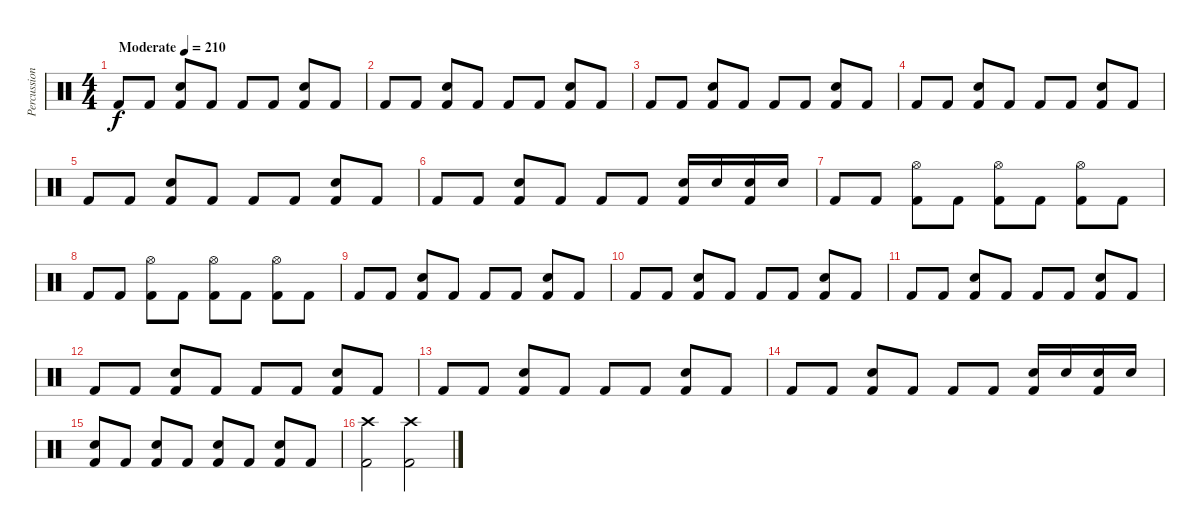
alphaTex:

\track ("Percussion" "Percussion") {instrument percussion}
\staff {score}
\articulation defaults
\ts (4 4)
\tempo (210 "Moderate")
\clef neutral
\ks c "Kick (hit) 2".8{dy f} "Kick (hit) 2".8
("Electric Snare (hit)" "Kick (hit) 2").8 "Kick (hit) 2".8 "Kick (hit) 2".8 "Kick (hit) 2".8 ("Electric Snare (hit)" "Kick (hit) 2").8 "Kick (hit) 2".8 |
"Kick (hit) 2".8 "Kick (hit) 2".8 ("Electric Snare (hit)" "Kick (hit) 2").8 "Kick (hit) 2".8 "Kick (hit) 2".8 "Kick (hit) 2".8 ("Electric Snare (hit)" "Kick (hit) 2").8 "Kick (hit) 2".8 |
"Kick (hit) 2".8 "Kick (hit) 2".8 ("Electric Snare (hit)" "Kick (hit) 2").8 "Kick (hit) 2".8 "Kick (hit) 2".8 "Kick (hit) 2".8 ("Electric Snare (hit)" "Kick (hit) 2").8 "Kick (hit) 2".8 |
"Kick (hit) 2".8 "Kick (hit) 2".8 ("Electric Snare (hit)" "Kick (hit) 2").8 "Kick (hit) 2".8 "Kick (hit) 2".8 "Kick (hit) 2".8 ("Electric Snare (hit)" "Kick (hit) 2").8 "Kick (hit) 2".8 |
"Kick (hit) 2".8 "Kick (hit) 2".8 ("Electric Snare (hit)" "Kick (hit) 2").8 "Kick (hit) 2".8 "Kick (hit) 2".8 "Kick (hit) 2".8 ("Electric Snare (hit)" "Kick (hit) 2").8 "Kick (hit) 2".8 |
"Kick (hit) 2".8 "Kick (hit) 2".8 ("Electric Snare (hit)" "Kick (hit) 2").8 "Kick (hit) 2".8 "Kick (hit) 2".8 "Kick (hit) 2".8 ("Electric Snare (hit)" "Kick (hit) 2").16 "Electric Snare (hit)".16 ("Electric Snare (hit)" "Kick (hit) 2").16 "Electric Snare (hit)".16 |
"Kick (hit) 2".8 "Kick (hit) 2".8 ("Hi-Hat (open)" "Kick (hit) 2").8 "Kick (hit) 2".8 ("Hi-Hat (open)" "Kick (hit) 2").8 "Kick (hit) 2".8 ("Hi-Hat (open)" "Kick (hit) 2").8 "Kick (hit) 2".8 |
"Kick (hit) 2".8 "Kick (hit) 2".8 ("Hi-Hat (open)" "Kick (hit) 2").8 "Kick (hit) 2".8 ("Hi-Hat (open)" "Kick (hit) 2").8 "Kick (hit) 2".8 ("Hi-Hat (open)" "Kick (hit) 2").8 "Kick (hit) 2".8 |
"Kick (hit) 2".8 "Kick (hit) 2".8 ("Electric Snare (hit)" "Kick (hit) 2").8 "Kick (hit) 2".8 "Kick (hit) 2".8 "Kick (hit) 2".8 ("Electric Snare (hit)" "Kick (hit) 2").8 "Kick (hit) 2".8 |
"Kick (hit) 2".8 "Kick (hit) 2".8 ("Electric Snare (hit)" "Kick (hit) 2").8 "Kick (hit) 2".8 "Kick (hit) 2".8 "Kick (hit) 2".8 ("Electric Snare (hit)" "Kick (hit) 2").8 "Kick (hit) 2".8 |
"Kick (hit) 2".8 "Kick (hit) 2".8 ("Electric Snare (hit)" "Kick (hit) 2").8 "Kick (hit) 2".8 "Kick (hit) 2".8 "Kick (hit) 2".8 ("Electric Snare (hit)" "Kick (hit) 2").8 "Kick (hit) 2".8 |
"Kick (hit) 2".8 "Kick (hit) 2".8 ("Electric Snare (hit)" "Kick (hit) 2").8 "Kick (hit) 2".8 "Kick (hit) 2".8 "Kick (hit) 2".8 ("Electric Snare (hit)" "Kick (hit) 2").8 "Kick (hit) 2".8 |
"Kick (hit) 2".8 "Kick (hit) 2".8 ("Electric Snare (hit)" "Kick (hit) 2").8 "Kick (hit) 2".8 "Kick (hit) 2".8 "Kick (hit) 2".8 ("Electric Snare (hit)" "Kick (hit) 2").8 "Kick (hit) 2".8 |
"Kick (hit) 2".8 "Kick (hit) 2".8 ("Electric Snare (hit)" "Kick (hit) 2").8 "Kick (hit) 2".8 "Kick (hit) 2".8 "Kick (hit) 2".8 ("Electric Snare (hit)" "Kick (hit) 2").16 "Electric Snare (hit)".16 ("Electric Snare (hit)" "Kick (hit) 2").16 "Electric Snare (hit)".16 |
("Electric Snare (hit)" "Kick (hit) 2").8 "Kick (hit) 2".8 ("Electric Snare (hit)" "Kick (hit) 2").8 "Kick (hit) 2".8 ("Electric Snare (hit)" "Kick (hit) 2").8 "Kick (hit) 2".8 ("Electric Snare (hit)" "Kick (hit) 2").8 "Kick (hit) 2".8 |
("Crash high (hit)" "Kick (hit) 2").2 ("Crash high (hit)" "Kick (hit) 2").2
